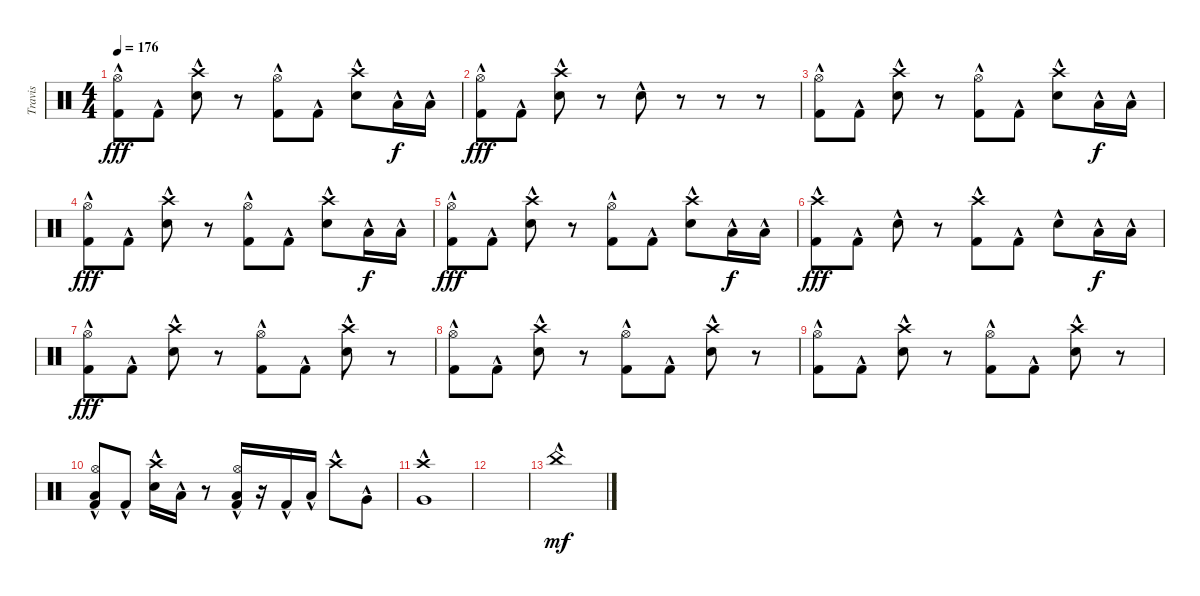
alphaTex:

\track ("Travis" "Travis") {instrument percussion}
\staff {score}
\articulation defaults
\ts (4 4)
\tempo 176
\clef neutral
\ks c
("Kick (hit) 2"{hac} "Hi-Hat (open)"{hac}).8{dy fff} "Kick (hit) 2"{hac}.8 ("Snare (hit) 2"{hac} "Crash high (hit)"{hac}).8 r.8 ("Kick (hit) 2"{hac} "Hi-Hat (open)"{hac}).8 "Kick (hit) 2"{hac}.8 ("Snare (hit) 2"{hac} "Crash high (hit)"{hac}).8 "Low Tom (hit)"{hac}.16{dy f} "Low Tom (hit)"{hac}.16 |
("Kick (hit) 2"{hac} "Hi-Hat (open)"{hac}).8{dy fff} "Kick (hit) 2"{hac}.8 ("Snare (hit) 2"{hac} "Crash high (hit)"{hac}).8 r.8 "Snare (hit) 2"{hac}.8 r.8 r.8 r.8 |
("Kick (hit) 2"{hac} "Hi-Hat (open)"{hac}).8 "Kick (hit) 2"{hac}.8 ("Snare (hit) 2"{hac} "Crash high (hit)"{hac}).8 r.8 ("Kick (hit) 2"{hac} "Hi-Hat (open)"{hac}).8 "Kick (hit) 2"{hac}.8 ("Snare (hit) 2"{hac} "Crash high (hit)"{hac}).8 "Low Tom (hit)"{hac}.16{dy f} "Low Tom (hit)"{hac}.16 |
("Kick (hit) 2"{hac} "Hi-Hat (open)"{hac}).8{dy fff} "Kick (hit) 2"{hac}.8 ("Snare (hit) 2"{hac} "Crash high (hit)"{hac}).8 r.8 ("Kick (hit) 2"{hac} "Hi-Hat (open)"{hac}).8 "Kick (hit) 2"{hac}.8 ("Snare (hit) 2"{hac} "Crash high (hit)"{hac}).8 "Low Tom (hit)"{hac}.16{dy f} "Low Tom (hit)"{hac}.16 |
("Kick (hit) 2"{hac} "Hi-Hat (open)"{hac}).8{dy fff} "Kick (hit) 2"{hac}.8 ("Snare (hit) 2"{hac} "Crash high (hit)"{hac}).8 r.8 ("Kick (hit) 2"{hac} "Hi-Hat (open)"{hac}).8 "Kick (hit) 2"{hac}.8 ("Snare (hit) 2"{hac} "Crash high (hit)"{hac}).8 "Low Tom (hit)"{hac}.16{dy f} "Low Tom (hit)"{hac}.16 |
("Kick (hit) 2"{hac} "Crash high (hit)"{hac}).8{dy fff} "Kick (hit) 2"{hac}.8 "Snare (hit) 2"{hac}.8 r.8 ("Kick (hit) 2"{hac} "Crash high (hit)"{hac}).8 "Kick (hit) 2"{hac}.8 "Snare (hit) 2"{hac}.8 "Low Tom (hit)"{hac}.16{dy f} "Low Tom (hit)"{hac}.16 |
("Kick (hit) 2"{hac} "Hi-Hat (open)"{hac}).8{dy fff} "Kick (hit) 2"{hac}.8 ("Snare (hit) 2"{hac} "Crash high (hit)"{hac}).8 r.8 ("Kick (hit) 2"{hac} "Hi-Hat (open)"{hac}).8 "Kick (hit) 2"{hac}.8 ("Snare (hit) 2"{hac} "Crash high (hit)"{hac}).8 r.8 |
("Kick (hit) 2"{hac} "Hi-Hat (open)"{hac}).8 "Kick (hit) 2"{hac}.8 ("Snare (hit) 2"{hac} "Crash high (hit)"{hac}).8 r.8 ("Kick (hit) 2"{hac} "Hi-Hat (open)"{hac}).8 "Kick (hit) 2"{hac}.8 ("Snare (hit) 2"{hac} "Crash high (hit)"{hac}).8 r.8 |
("Kick (hit) 2"{hac} "Hi-Hat (open)"{hac}).8 "Kick (hit) 2"{hac}.8 ("Snare (hit) 2"{hac} "Crash high (hit)"{hac}).8 r.8 ("Kick (hit) 2"{hac} "Hi-Hat (open)"{hac}).8 "Kick (hit) 2"{hac}.8 ("Snare (hit) 2"{hac} "Crash high (hit)"{hac}).8 r.8 |
("Kick (hit) 2"{hac} "Low Tom (hit)"{hac} "Hi-Hat (open)"{hac}).8 "Kick (hit) 2"{hac}.8 ("Snare (hit) 2"{hac} "Crash high (hit)"{hac}).16 "Low Tom (hit)"{hac}.16 r.8 ("Kick (hit) 2"{hac} "Low Tom (hit)"{hac} "Hi-Hat (open)"{hac}).16 r.16 "Kick (hit) 2"{hac}.16 "Low Tom (hit)"{hac}.16 "Crash high (hit)"{hac}.8 "Very Low Tom (hit)"{hac}.8 |
("Very Low Tom (hit)"{hac} "Crash high (hit)"{hac}).1 |
|
"China (hit)"{hac}.1{dy mf}
